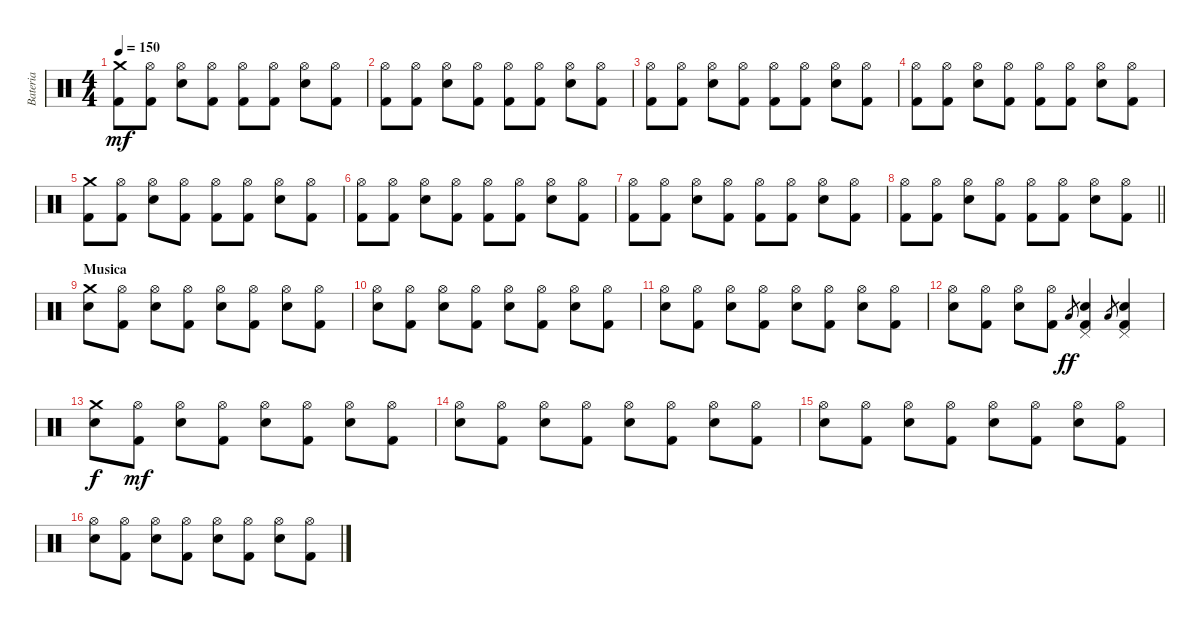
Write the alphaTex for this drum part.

\track ("Bateria" "Bateria") {instrument percussion}
\staff {score}
\articulation defaults
\ts (4 4)
\tempo 150
\clef neutral
\ks c
("Crash medium (hit)" "Kick (hit) 2").8{dy mf} ("Hi-Hat (open)" "Kick (hit) 2").8 ("Hi-Hat (open)" "Snare (hit) 2").8 ("Hi-Hat (open)" "Kick (hit) 2").8 ("Hi-Hat (open)" "Kick (hit) 2").8 ("Hi-Hat (open)" "Kick (hit) 2").8 ("Hi-Hat (open)" "Snare (hit) 2").8 ("Hi-Hat (open)" "Kick (hit) 2").8 |
("Hi-Hat (open)" "Kick (hit) 2").8 ("Hi-Hat (open)" "Kick (hit) 2").8 ("Hi-Hat (open)" "Snare (hit) 2").8 ("Hi-Hat (open)" "Kick (hit) 2").8 ("Hi-Hat (open)" "Kick (hit) 2").8 ("Hi-Hat (open)" "Kick (hit) 2").8 ("Hi-Hat (open)" "Snare (hit) 2").8 ("Hi-Hat (open)" "Kick (hit) 2").8 |
("Hi-Hat (open)" "Kick (hit) 2").8 ("Hi-Hat (open)" "Kick (hit) 2").8 ("Hi-Hat (open)" "Snare (hit) 2").8 ("Hi-Hat (open)" "Kick (hit) 2").8 ("Hi-Hat (open)" "Kick (hit) 2").8 ("Hi-Hat (open)" "Kick (hit) 2").8 ("Hi-Hat (open)" "Snare (hit) 2").8 ("Hi-Hat (open)" "Kick (hit) 2").8 |
("Hi-Hat (open)" "Kick (hit) 2").8 ("Hi-Hat (open)" "Kick (hit) 2").8 ("Hi-Hat (open)" "Snare (hit) 2").8 ("Hi-Hat (open)" "Kick (hit) 2").8 ("Hi-Hat (open)" "Kick (hit) 2").8 ("Hi-Hat (open)" "Kick (hit) 2").8 ("Hi-Hat (open)" "Snare (hit) 2").8 ("Hi-Hat (open)" "Kick (hit) 2").8 |
("Crash medium (hit)" "Kick (hit) 2").8 ("Hi-Hat (open)" "Kick (hit) 2").8 ("Hi-Hat (open)" "Snare (hit) 2").8 ("Hi-Hat (open)" "Kick (hit) 2").8 ("Hi-Hat (open)" "Kick (hit) 2").8 ("Hi-Hat (open)" "Kick (hit) 2").8 ("Hi-Hat (open)" "Snare (hit) 2").8 ("Hi-Hat (open)" "Kick (hit) 2").8 |
("Hi-Hat (open)" "Kick (hit) 2").8 ("Hi-Hat (open)" "Kick (hit) 2").8 ("Hi-Hat (open)" "Snare (hit) 2").8 ("Hi-Hat (open)" "Kick (hit) 2").8 ("Hi-Hat (open)" "Kick (hit) 2").8 ("Hi-Hat (open)" "Kick (hit) 2").8 ("Hi-Hat (open)" "Snare (hit) 2").8 ("Hi-Hat (open)" "Kick (hit) 2").8 |
("Hi-Hat (open)" "Kick (hit) 2").8 ("Hi-Hat (open)" "Kick (hit) 2").8 ("Hi-Hat (open)" "Snare (hit) 2").8 ("Hi-Hat (open)" "Kick (hit) 2").8 ("Hi-Hat (open)" "Kick (hit) 2").8 ("Hi-Hat (open)" "Kick (hit) 2").8 ("Hi-Hat (open)" "Snare (hit) 2").8 ("Hi-Hat (open)" "Kick (hit) 2").8 |
\barLineRight lightlight
("Hi-Hat (open)" "Kick (hit) 2").8 ("Hi-Hat (open)" "Kick (hit) 2").8 ("Hi-Hat (open)" "Snare (hit) 2").8 ("Hi-Hat (open)" "Kick (hit) 2").8 ("Hi-Hat (open)" "Kick (hit) 2").8 ("Hi-Hat (open)" "Kick (hit) 2").8 ("Hi-Hat (open)" "Snare (hit) 2").8 ("Hi-Hat (open)" "Kick (hit) 2").8 |
\section ("" "Musica")
("Crash medium (hit)" "Snare (hit) 2").8 ("Hi-Hat (open)" "Kick (hit) 2").8 ("Hi-Hat (open)" "Snare (hit) 2").8 ("Hi-Hat (open)" "Kick (hit) 2").8 ("Hi-Hat (open)" "Snare (hit) 2").8 ("Hi-Hat (open)" "Kick (hit) 2").8 ("Hi-Hat (open)" "Snare (hit) 2").8 ("Hi-Hat (open)" "Kick (hit) 2").8 |
("Hi-Hat (open)" "Snare (hit) 2").8 ("Hi-Hat (open)" "Kick (hit) 2").8 ("Hi-Hat (open)" "Snare (hit) 2").8 ("Hi-Hat (open)" "Kick (hit) 2").8 ("Hi-Hat (open)" "Snare (hit) 2").8 ("Hi-Hat (open)" "Kick (hit) 2").8 ("Hi-Hat (open)" "Snare (hit) 2").8 ("Hi-Hat (open)" "Kick (hit) 2").8 |
("Hi-Hat (open)" "Snare (hit) 2").8 ("Hi-Hat (open)" "Kick (hit) 2").8 ("Hi-Hat (open)" "Snare (hit) 2").8 ("Hi-Hat (open)" "Kick (hit) 2").8 ("Hi-Hat (open)" "Snare (hit) 2").8 ("Hi-Hat (open)" "Kick (hit) 2").8 ("Hi-Hat (open)" "Snare (hit) 2").8 ("Hi-Hat (open)" "Kick (hit) 2").8 |
("Hi-Hat (open)" "Snare (hit) 2").8 ("Hi-Hat (open)" "Kick (hit) 2").8 ("Hi-Hat (open)" "Snare (hit) 2").8 ("Hi-Hat (open)" "Kick (hit) 2").8 "Low Floor Tom (hit)".8{gr dy ff} ("Pedal Hi-Hat (hit)" "Snare (hit) 2" "Kick (hit) 2").4 "Low Floor Tom (hit)".8{gr} ("Pedal Hi-Hat (hit)" "Snare (hit) 2" "Kick (hit) 2").4 |
("Crash medium (hit)" "Snare (hit) 2").8{dy f} ("Hi-Hat (open)" "Kick (hit) 2").8{dy mf} ("Hi-Hat (open)" "Snare (hit) 2").8 ("Hi-Hat (open)" "Kick (hit) 2").8 ("Hi-Hat (open)" "Snare (hit) 2").8 ("Hi-Hat (open)" "Kick (hit) 2").8 ("Hi-Hat (open)" "Snare (hit) 2").8 ("Hi-Hat (open)" "Kick (hit) 2").8 |
("Hi-Hat (open)" "Snare (hit) 2").8 ("Hi-Hat (open)" "Kick (hit) 2").8 ("Hi-Hat (open)" "Snare (hit) 2").8 ("Hi-Hat (open)" "Kick (hit) 2").8 ("Hi-Hat (open)" "Snare (hit) 2").8 ("Hi-Hat (open)" "Kick (hit) 2").8 ("Hi-Hat (open)" "Snare (hit) 2").8 ("Hi-Hat (open)" "Kick (hit) 2").8 |
("Hi-Hat (open)" "Snare (hit) 2").8 ("Hi-Hat (open)" "Kick (hit) 2").8 ("Hi-Hat (open)" "Snare (hit) 2").8 ("Hi-Hat (open)" "Kick (hit) 2").8 ("Hi-Hat (open)" "Snare (hit) 2").8 ("Hi-Hat (open)" "Kick (hit) 2").8 ("Hi-Hat (open)" "Snare (hit) 2").8 ("Hi-Hat (open)" "Kick (hit) 2").8 |
("Hi-Hat (open)" "Snare (hit) 2").8 ("Hi-Hat (open)" "Kick (hit) 2").8 ("Hi-Hat (open)" "Snare (hit) 2").8 ("Hi-Hat (open)" "Kick (hit) 2").8 ("Hi-Hat (open)" "Snare (hit) 2").8 ("Hi-Hat (open)" "Kick (hit) 2").8 ("Hi-Hat (open)" "Snare (hit) 2").8 ("Hi-Hat (open)" "Kick (hit) 2").8
